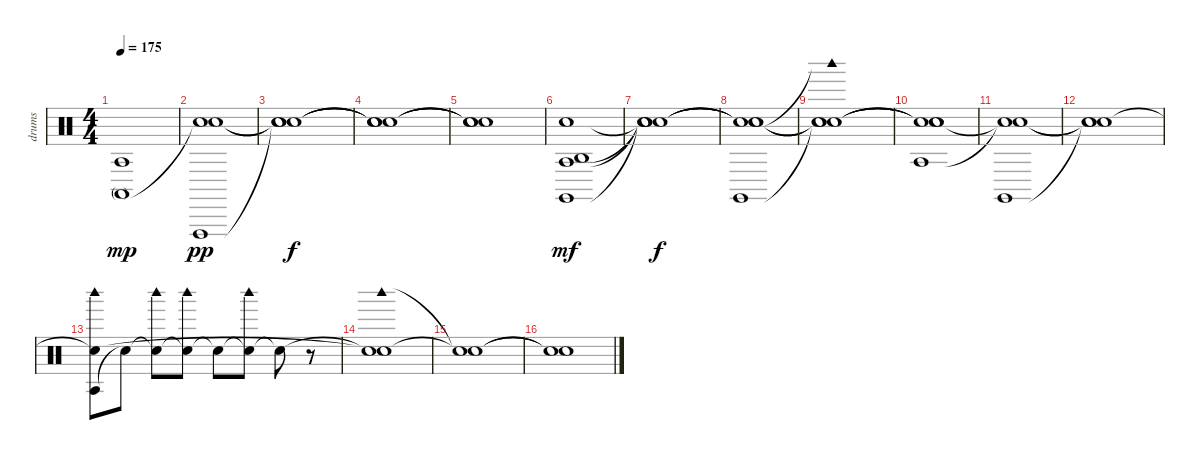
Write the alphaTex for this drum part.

\track ("drums" "drums") {instrument percussion}
\staff {score}
\articulation defaults
\ts (4 4)
\tempo 175
\clef neutral
\ks c
("Agogo tow (hit)" "Conga high (mute)").1{dy mp} |
("Vibraslap (hit)" "Snare (hit)"{t} "Snare (hit)").1{dy pp} |
("Snare (hit)"{t} "Snare (hit)"{t} "Snare (hit)"{t}).1{dy f} |
("Snare (hit)"{t} "Snare (hit)"{t} "Snare (hit)"{t}).1 |
("Snare (hit)"{t} "Snare (hit)"{t} "Snare (hit)"{t}).1 |
("Agogo high (hit)" "Claves (hit)" "Agogo tow (hit)" "Snare (hit)").1{dy mf} |
("Snare (hit)"{t} "Snare (hit)"{t} "Snare (hit)"{t} "Snare (hit)"{t}).1{dy f} |
("Snare (hit)"{t} "Claves (hit)" "Snare (hit)"{t} "Snare (hit)"{t}).1 |
("Snare (hit)"{t} "Snare (hit)"{t} "Woodblock high (hit)"{t} "Snare (hit)"{t}).1 |
("Snare (hit)"{t} "Snare (hit)"{t} "Agogo tow (hit)" "Snare (hit)"{t}).1 |
("Claves (hit)" "Snare (hit)"{t} "Snare (hit)"{t}).1 |
("Snare (hit)"{t} "Snare (hit)"{t} "Snare (hit)"{t}).1 |
("Agogo tow (hit)" "Woodblock high (hit)" "Snare (hit)"{t}).8 "Snare (hit)"{t}.8 ("Snare (hit)"{t} "Woodblock high (hit)").8 ("Snare (hit)"{t} "Woodblock high (hit)").8 "Snare (hit)"{t}.8 ("Snare (hit)"{t} "Woodblock high (hit)").8 "Snare (hit)"{t}.8 r.8 |
("Snare (hit)"{t} "Woodblock high (hit)" "Snare (hit)"{t}).1 |
("Snare (hit)"{t} "Snare (hit)"{t}).1 |
("Snare (hit)"{t} "Snare (hit)"{t}).1
